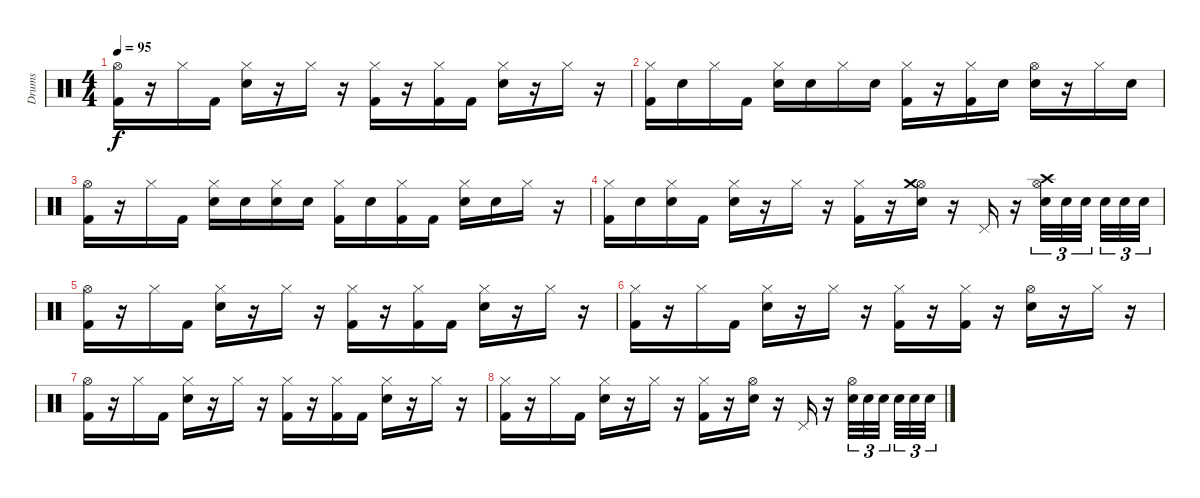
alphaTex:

\track ("Drums" "Drums") {instrument percussion}
\staff {score}
\articulation defaults
\ts (4 4)
\tempo 95
\clef neutral
\ks c
("Hi-Hat (open)" "Kick (hit) 2").16{dy f} r.16 "Hi-Hat (closed)".16 "Kick (hit) 2".16 ("Hi-Hat (closed)" "Electric Snare (hit)").16 r.16 "Hi-Hat (closed)".16 r.16 ("Hi-Hat (closed)" "Kick (hit) 2").16 r.16 ("Hi-Hat (closed)" "Kick (hit) 2").16 "Kick (hit) 2".16 ("Hi-Hat (closed)" "Electric Snare (hit)").16 r.16 "Hi-Hat (closed)".16 r.16 |
("Hi-Hat (closed)" "Kick (hit) 2").16 "Electric Snare (hit)".16 "Hi-Hat (closed)".16 "Kick (hit) 2".16 ("Hi-Hat (closed)" "Electric Snare (hit)").16 "Electric Snare (hit)".16 "Hi-Hat (closed)".16 "Electric Snare (hit)".16 ("Hi-Hat (closed)" "Kick (hit) 2").16 r.16 ("Hi-Hat (closed)" "Kick (hit) 2").16 "Electric Snare (hit)".16 ("Hi-Hat (open)" "Electric Snare (hit)").16 r.16 "Hi-Hat (closed)".16 "Electric Snare (hit)".16 |
("Hi-Hat (open)" "Kick (hit) 2").16 r.16 "Hi-Hat (closed)".16 "Kick (hit) 2".16 ("Hi-Hat (closed)" "Electric Snare (hit)").16 "Electric Snare (hit)".16 ("Hi-Hat (closed)" "Electric Snare (hit)").16 "Electric Snare (hit)".16 ("Hi-Hat (closed)" "Kick (hit) 2").16 "Electric Snare (hit)".16 ("Hi-Hat (closed)" "Kick (hit) 2").16 "Kick (hit) 2".16 ("Hi-Hat (closed)" "Electric Snare (hit)").16 "Electric Snare (hit)".16 "Hi-Hat (closed)".16 r.16 |
("Hi-Hat (closed)" "Kick (hit) 2").16 "Electric Snare (hit)".16 ("Hi-Hat (closed)" "Electric Snare (hit)").16 "Kick (hit) 2".16 ("Hi-Hat (closed)" "Electric Snare (hit)").16 r.16 "Hi-Hat (closed)".16 r.16 ("Hi-Hat (closed)" "Kick (hit) 2").16 r.16 ("Hi-Hat (open)" "Crash medium (hit)" "Electric Snare (hit)").16 r.16 "Pedal Hi-Hat (hit)".16 r.16 ("Hi-Hat (open)" "Crash high (hit)" "Electric Snare (hit)").32{tu (3 2)} "Electric Snare (hit)".32{tu (3 2)} "Electric Snare (hit)".32{tu (3 2)} "Electric Snare (hit)".32{tu (3 2)} "Electric Snare (hit)".32{tu (3 2)} "Electric Snare (hit)".32{tu (3 2)} |
("Hi-Hat (open)" "Kick (hit) 2").16 r.16 "Hi-Hat (closed)".16 "Kick (hit) 2".16 ("Hi-Hat (closed)" "Electric Snare (hit)").16 r.16 "Hi-Hat (closed)".16 r.16 ("Hi-Hat (closed)" "Kick (hit) 2").16 r.16 ("Hi-Hat (closed)" "Kick (hit) 2").16 "Kick (hit) 2".16 ("Hi-Hat (closed)" "Electric Snare (hit)").16 r.16 "Hi-Hat (closed)".16 r.16 |
("Hi-Hat (closed)" "Kick (hit) 2").16 r.16 "Hi-Hat (closed)".16 "Kick (hit) 2".16 ("Hi-Hat (closed)" "Electric Snare (hit)").16 r.16 "Hi-Hat (closed)".16 r.16 ("Hi-Hat (closed)" "Kick (hit) 2").16 r.16 ("Hi-Hat (closed)" "Kick (hit) 2").16 r.16 ("Hi-Hat (open)" "Electric Snare (hit)").16 r.16 "Hi-Hat (closed)".16 r.16 |
("Hi-Hat (open)" "Kick (hit) 2").16 r.16 "Hi-Hat (closed)".16 "Kick (hit) 2".16 ("Hi-Hat (closed)" "Electric Snare (hit)").16 r.16 "Hi-Hat (closed)".16 r.16 ("Hi-Hat (closed)" "Kick (hit) 2").16 r.16 ("Hi-Hat (closed)" "Kick (hit) 2").16 "Kick (hit) 2".16 ("Hi-Hat (closed)" "Electric Snare (hit)").16 r.16 "Hi-Hat (closed)".16 r.16 |
("Hi-Hat (closed)" "Kick (hit) 2").16 r.16 "Hi-Hat (closed)".16 "Kick (hit) 2".16 ("Hi-Hat (closed)" "Electric Snare (hit)").16 r.16 "Hi-Hat (closed)".16 r.16 ("Hi-Hat (closed)" "Kick (hit) 2").16 r.16 ("Hi-Hat (open)" "Electric Snare (hit)").16 r.16 "Pedal Hi-Hat (hit)".16 r.16 ("Hi-Hat (open)" "Electric Snare (hit)").32{tu (3 2)} "Electric Snare (hit)".32{tu (3 2)} "Electric Snare (hit)".32{tu (3 2)} "Electric Snare (hit)".32{tu (3 2)} "Electric Snare (hit)".32{tu (3 2)} "Electric Snare (hit)".32{tu (3 2)}
